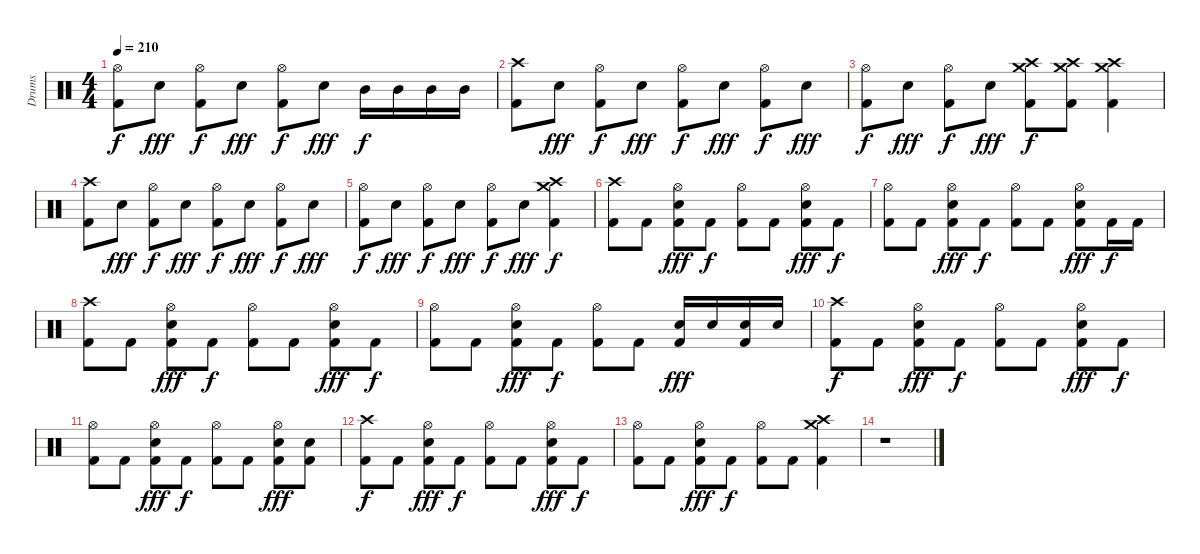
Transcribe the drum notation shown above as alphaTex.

\track ("Drums" "Drums") {instrument percussion}
\staff {score}
\articulation defaults
\ts (4 4)
\tempo 210
\clef neutral
\ks c
("Hi-Hat (open)" "Kick (hit) 2").8{dy f} "Snare (hit) 2".8{dy fff} ("Hi-Hat (open)" "Kick (hit) 2").8{dy f} "Snare (hit) 2".8{dy fff} ("Hi-Hat (open)" "Kick (hit) 2").8{dy f} "Snare (hit) 2".8{dy fff} "Mid Tom (hit)".16{dy f} "Mid Tom (hit)".16 "Mid Tom (hit)".16 "Mid Tom (hit)".16 |
("Crash high (hit)" "Kick (hit) 2").8 "Snare (hit) 2".8{dy fff} ("Hi-Hat (open)" "Kick (hit) 2").8{dy f} "Snare (hit) 2".8{dy fff} ("Hi-Hat (open)" "Kick (hit) 2").8{dy f} "Snare (hit) 2".8{dy fff} ("Hi-Hat (open)" "Kick (hit) 2").8{dy f} "Snare (hit) 2".8{dy fff} |
("Hi-Hat (open)" "Kick (hit) 2").8{dy f} "Snare (hit) 2".8{dy fff} ("Hi-Hat (open)" "Kick (hit) 2").8{dy f} "Snare (hit) 2".8{dy fff} ("Crash high (hit)" "Crash medium (hit)" "Kick (hit) 2").8{dy f} ("Crash high (hit)" "Crash medium (hit)" "Kick (hit) 2").8 ("Crash high (hit)" "Crash medium (hit)" "Kick (hit) 2").4 |
("Crash high (hit)" "Kick (hit) 2").8 "Snare (hit) 2".8{dy fff} ("Hi-Hat (open)" "Kick (hit) 2").8{dy f} "Snare (hit) 2".8{dy fff} ("Hi-Hat (open)" "Kick (hit) 2").8{dy f} "Snare (hit) 2".8{dy fff} ("Hi-Hat (open)" "Kick (hit) 2").8{dy f} "Snare (hit) 2".8{dy fff} |
("Hi-Hat (open)" "Kick (hit) 2").8{dy f} "Snare (hit) 2".8{dy fff} ("Hi-Hat (open)" "Kick (hit) 2").8{dy f} "Snare (hit) 2".8{dy fff} ("Hi-Hat (open)" "Kick (hit) 2").8{dy f} "Snare (hit) 2".8{dy fff} ("Crash high (hit)" "Crash medium (hit)" "Kick (hit) 2").4{dy f} |
("Crash high (hit)" "Kick (hit) 2").8 "Kick (hit) 2".8 ("Hi-Hat (open)" "Snare (hit) 2" "Kick (hit) 2").8{dy fff} "Kick (hit) 2".8{dy f} ("Hi-Hat (open)" "Kick (hit) 2").8 "Kick (hit) 2".8 ("Hi-Hat (open)" "Snare (hit) 2" "Kick (hit) 2").8{dy fff} "Kick (hit) 2".8{dy f} |
("Hi-Hat (open)" "Kick (hit) 2").8 "Kick (hit) 2".8 ("Hi-Hat (open)" "Snare (hit) 2" "Kick (hit) 2").8{dy fff} "Kick (hit) 2".8{dy f} ("Hi-Hat (open)" "Kick (hit) 2").8 "Kick (hit) 2".8 ("Hi-Hat (open)" "Snare (hit) 2" "Kick (hit) 2").8{dy fff} "Kick (hit) 2".16{dy f} "Kick (hit) 2".16 |
("Crash high (hit)" "Kick (hit) 2").8 "Kick (hit) 2".8 ("Hi-Hat (open)" "Snare (hit) 2" "Kick (hit) 2").8{dy fff} "Kick (hit) 2".8{dy f} ("Hi-Hat (open)" "Kick (hit) 2").8 "Kick (hit) 2".8 ("Hi-Hat (open)" "Snare (hit) 2" "Kick (hit) 2").8{dy fff} "Kick (hit) 2".8{dy f} |
("Hi-Hat (open)" "Kick (hit) 2").8 "Kick (hit) 2".8 ("Hi-Hat (open)" "Snare (hit) 2" "Kick (hit) 2").8{dy fff} "Kick (hit) 2".8{dy f} ("Hi-Hat (open)" "Kick (hit) 2").8 "Kick (hit) 2".8 ("Snare (hit) 2" "Kick (hit) 2").16{dy fff} "Snare (hit) 2".16 ("Snare (hit) 2" "Kick (hit) 2").16 "Snare (hit) 2".16 |
("Crash high (hit)" "Kick (hit) 2").8{dy f} "Kick (hit) 2".8 ("Hi-Hat (open)" "Snare (hit) 2" "Kick (hit) 2").8{dy fff} "Kick (hit) 2".8{dy f} ("Hi-Hat (open)" "Kick (hit) 2").8 "Kick (hit) 2".8 ("Hi-Hat (open)" "Snare (hit) 2" "Kick (hit) 2").8{dy fff} "Kick (hit) 2".8{dy f} |
("Hi-Hat (open)" "Kick (hit) 2").8 "Kick (hit) 2".8 ("Hi-Hat (open)" "Snare (hit) 2" "Kick (hit) 2").8{dy fff} "Kick (hit) 2".8{dy f} ("Hi-Hat (open)" "Kick (hit) 2").8 "Kick (hit) 2".8 ("Hi-Hat (open)" "Snare (hit) 2" "Kick (hit) 2").8{dy fff} ("Snare (hit) 2" "Kick (hit) 2").8 |
("Crash high (hit)" "Kick (hit) 2").8{dy f} "Kick (hit) 2".8 ("Hi-Hat (open)" "Snare (hit) 2" "Kick (hit) 2").8{dy fff} "Kick (hit) 2".8{dy f} ("Hi-Hat (open)" "Kick (hit) 2").8 "Kick (hit) 2".8 ("Hi-Hat (open)" "Snare (hit) 2" "Kick (hit) 2").8{dy fff} "Kick (hit) 2".8{dy f} |
("Hi-Hat (open)" "Kick (hit) 2").8 "Kick (hit) 2".8 ("Hi-Hat (open)" "Snare (hit) 2" "Kick (hit) 2").8{dy fff} "Kick (hit) 2".8{dy f} ("Hi-Hat (open)" "Kick (hit) 2").8 "Kick (hit) 2".8 ("Crash high (hit)" "Crash medium (hit)" "Kick (hit) 2").4 |
r.1
